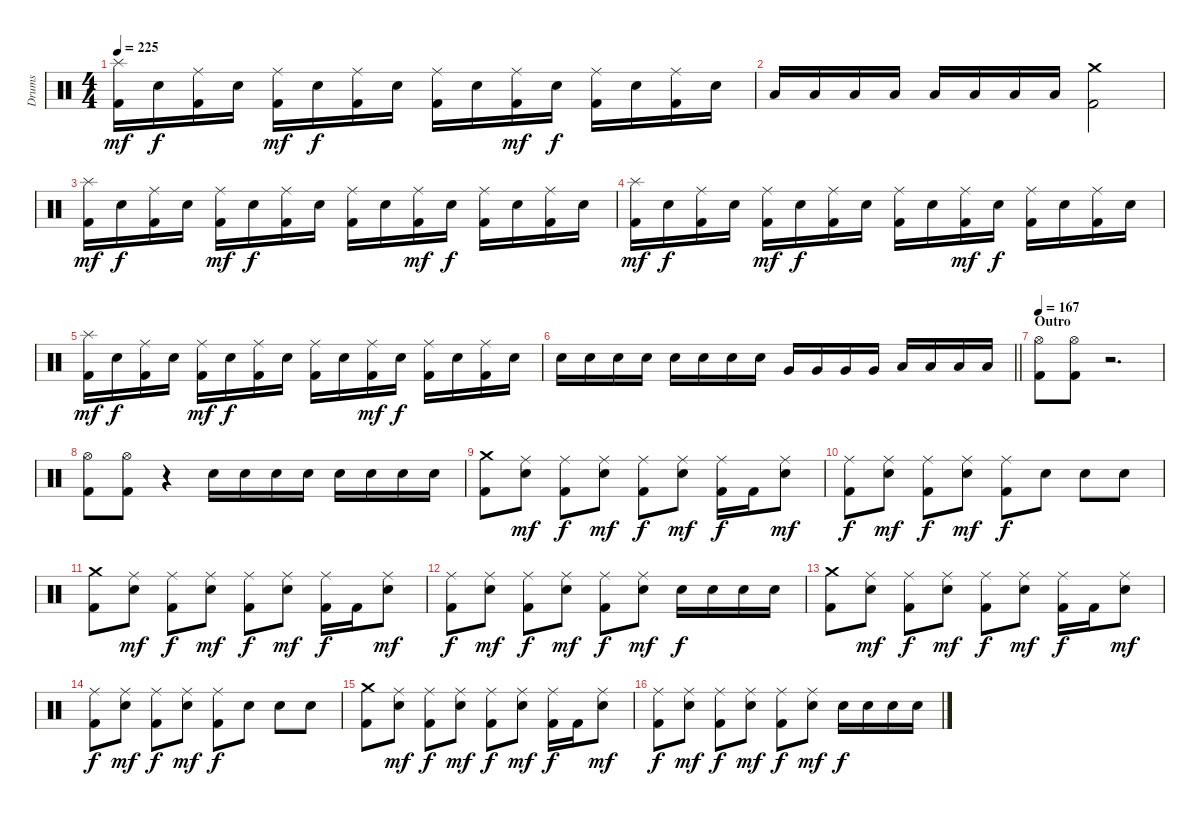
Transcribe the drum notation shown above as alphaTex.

\track ("Drums" "Drums") {instrument percussion}
\staff {score}
\articulation defaults
\ts (4 4)
\tempo 225
\clef neutral
\ks c
("Splash (hit)" "Kick (hit) 2").16{dy mf} "Snare (hit) 2".16{dy f} ("Ride (middle)" "Kick (hit) 2").16 "Snare (hit) 2".16 ("Ride (middle)" "Kick (hit) 2").16{dy mf} "Snare (hit) 2".16{dy f} ("Ride (middle)" "Kick (hit) 2").16 "Snare (hit) 2".16 ("Ride (middle)" "Kick (hit) 2").16 "Snare (hit) 2".16 ("Ride (middle)" "Kick (hit) 2").16{dy mf} "Snare (hit) 2".16{dy f} ("Ride (middle)" "Kick (hit) 2").16 "Snare (hit) 2".16 ("Ride (middle)" "Kick (hit) 2").16 "Snare (hit) 2".16 |
"Low Tom (hit)".16 "Low Tom (hit)".16 "Low Tom (hit)".16 "Low Tom (hit)".16 "Low Tom (hit)".16 "Low Tom (hit)".16 "Low Tom (hit)".16 "Low Tom (hit)".16 ("Crash medium (hit)" "Kick (hit) 2").2 |
("Splash (hit)" "Kick (hit) 2").16{dy mf} "Snare (hit) 2".16{dy f} ("Ride (middle)" "Kick (hit) 2").16 "Snare (hit) 2".16 ("Ride (middle)" "Kick (hit) 2").16{dy mf} "Snare (hit) 2".16{dy f} ("Ride (middle)" "Kick (hit) 2").16 "Snare (hit) 2".16 ("Ride (middle)" "Kick (hit) 2").16 "Snare (hit) 2".16 ("Ride (middle)" "Kick (hit) 2").16{dy mf} "Snare (hit) 2".16{dy f} ("Ride (middle)" "Kick (hit) 2").16 "Snare (hit) 2".16 ("Ride (middle)" "Kick (hit) 2").16 "Snare (hit) 2".16 |
("Splash (hit)" "Kick (hit) 2").16{dy mf} "Snare (hit) 2".16{dy f} ("Ride (middle)" "Kick (hit) 2").16 "Snare (hit) 2".16 ("Ride (middle)" "Kick (hit) 2").16{dy mf} "Snare (hit) 2".16{dy f} ("Ride (middle)" "Kick (hit) 2").16 "Snare (hit) 2".16 ("Ride (middle)" "Kick (hit) 2").16 "Snare (hit) 2".16 ("Ride (middle)" "Kick (hit) 2").16{dy mf} "Snare (hit) 2".16{dy f} ("Ride (middle)" "Kick (hit) 2").16 "Snare (hit) 2".16 ("Ride (middle)" "Kick (hit) 2").16 "Snare (hit) 2".16 |
("Splash (hit)" "Kick (hit) 2").16{dy mf} "Snare (hit) 2".16{dy f} ("Ride (middle)" "Kick (hit) 2").16 "Snare (hit) 2".16 ("Ride (middle)" "Kick (hit) 2").16{dy mf} "Snare (hit) 2".16{dy f} ("Ride (middle)" "Kick (hit) 2").16 "Snare (hit) 2".16 ("Ride (middle)" "Kick (hit) 2").16 "Snare (hit) 2".16 ("Ride (middle)" "Kick (hit) 2").16{dy mf} "Snare (hit) 2".16{dy f} ("Ride (middle)" "Kick (hit) 2").16 "Snare (hit) 2".16 ("Ride (middle)" "Kick (hit) 2").16 "Snare (hit) 2".16 |
\barLineRight lightlight "Snare (hit) 2".16 "Snare (hit) 2".16 "Snare (hit) 2".16 "Snare (hit) 2".16 "Snare (hit) 2".16 "Snare (hit) 2".16 "Snare (hit) 2".16 "Snare (hit) 2".16 "Very Low Tom (hit)".16 "Very Low Tom (hit)".16 "Very Low Tom (hit)".16 "Very Low Tom (hit)".16 "Low Floor Tom (hit)".16 "Low Floor Tom (hit)".16 "Low Floor Tom (hit)".16 "Low Floor Tom (hit)".16
|
\section ("" "Outro")
\tempo 167
("Hi-Hat (open)" "Kick (hit) 2").8 ("Hi-Hat (open)" "Kick (hit) 2").8{volume 0} r.2{d} |
("Hi-Hat (open)" "Kick (hit) 2").8{volume 14} ("Hi-Hat (open)" "Kick (hit) 2").8{volume 0} r.4 "Snare (hit) 2".16{volume 14} "Snare (hit) 2".16 "Snare (hit) 2".16 "Snare (hit) 2".16 "Snare (hit) 2".16 "Snare (hit) 2".16 "Snare (hit) 2".16 "Snare (hit) 2".16 |
("Crash medium (hit)" "Kick (hit) 2").8 ("Ride (middle)" "Snare (hit) 2").8{dy mf} ("Ride (middle)" "Kick (hit) 2").8{dy f} ("Ride (middle)" "Snare (hit) 2").8{dy mf} ("Ride (middle)" "Kick (hit) 2").8{dy f} ("Ride (middle)" "Snare (hit) 2").8{dy mf} ("Ride (middle)" "Kick (hit) 2").16{dy f} "Kick (hit) 2".16 ("Ride (middle)" "Snare (hit) 2").8{dy mf} |
("Ride (middle)" "Kick (hit) 2").8{dy f} ("Ride (middle)" "Snare (hit) 2").8{dy mf} ("Ride (middle)" "Kick (hit) 2").8{dy f} ("Ride (middle)" "Snare (hit) 2").8{dy mf} ("Ride (middle)" "Kick (hit) 2").8{dy f} "Snare (hit) 2".8 "Snare (hit) 2".8 "Snare (hit) 2".8 |
("Crash medium (hit)" "Kick (hit) 2").8 ("Ride (middle)" "Snare (hit) 2").8{dy mf} ("Ride (middle)" "Kick (hit) 2").8{dy f} ("Ride (middle)" "Snare (hit) 2").8{dy mf} ("Ride (middle)" "Kick (hit) 2").8{dy f} ("Ride (middle)" "Snare (hit) 2").8{dy mf} ("Ride (middle)" "Kick (hit) 2").16{dy f} "Kick (hit) 2".16 ("Ride (middle)" "Snare (hit) 2").8{dy mf} |
("Ride (middle)" "Kick (hit) 2").8{dy f} ("Ride (middle)" "Snare (hit) 2").8{dy mf} ("Ride (middle)" "Kick (hit) 2").8{dy f} ("Ride (middle)" "Snare (hit) 2").8{dy mf} ("Ride (middle)" "Kick (hit) 2").8{dy f} ("Ride (middle)" "Snare (hit) 2").8{dy mf} "Snare (hit) 2".16{dy f} "Snare (hit) 2".16 "Snare (hit) 2".16 "Snare (hit) 2".16 |
("Crash medium (hit)" "Kick (hit) 2").8 ("Ride (middle)" "Snare (hit) 2").8{dy mf} ("Ride (middle)" "Kick (hit) 2").8{dy f} ("Ride (middle)" "Snare (hit) 2").8{dy mf} ("Ride (middle)" "Kick (hit) 2").8{dy f} ("Ride (middle)" "Snare (hit) 2").8{dy mf} ("Ride (middle)" "Kick (hit) 2").16{dy f} "Kick (hit) 2".16 ("Ride (middle)" "Snare (hit) 2").8{dy mf} |
("Ride (middle)" "Kick (hit) 2").8{dy f} ("Ride (middle)" "Snare (hit) 2").8{dy mf} ("Ride (middle)" "Kick (hit) 2").8{dy f} ("Ride (middle)" "Snare (hit) 2").8{dy mf} ("Ride (middle)" "Kick (hit) 2").8{dy f} "Snare (hit) 2".8 "Snare (hit) 2".8 "Snare (hit) 2".8 |
("Crash medium (hit)" "Kick (hit) 2").8 ("Ride (middle)" "Snare (hit) 2").8{dy mf} ("Ride (middle)" "Kick (hit) 2").8{dy f} ("Ride (middle)" "Snare (hit) 2").8{dy mf} ("Ride (middle)" "Kick (hit) 2").8{dy f} ("Ride (middle)" "Snare (hit) 2").8{dy mf} ("Ride (middle)" "Kick (hit) 2").16{dy f} "Kick (hit) 2".16 ("Ride (middle)" "Snare (hit) 2").8{dy mf} |
("Ride (middle)" "Kick (hit) 2").8{dy f} ("Ride (middle)" "Snare (hit) 2").8{dy mf} ("Ride (middle)" "Kick (hit) 2").8{dy f} ("Ride (middle)" "Snare (hit) 2").8{dy mf} ("Ride (middle)" "Kick (hit) 2").8{dy f} ("Ride (middle)" "Snare (hit) 2").8{dy mf} "Snare (hit) 2".16{dy f} "Snare (hit) 2".16 "Snare (hit) 2".16 "Snare (hit) 2".16
